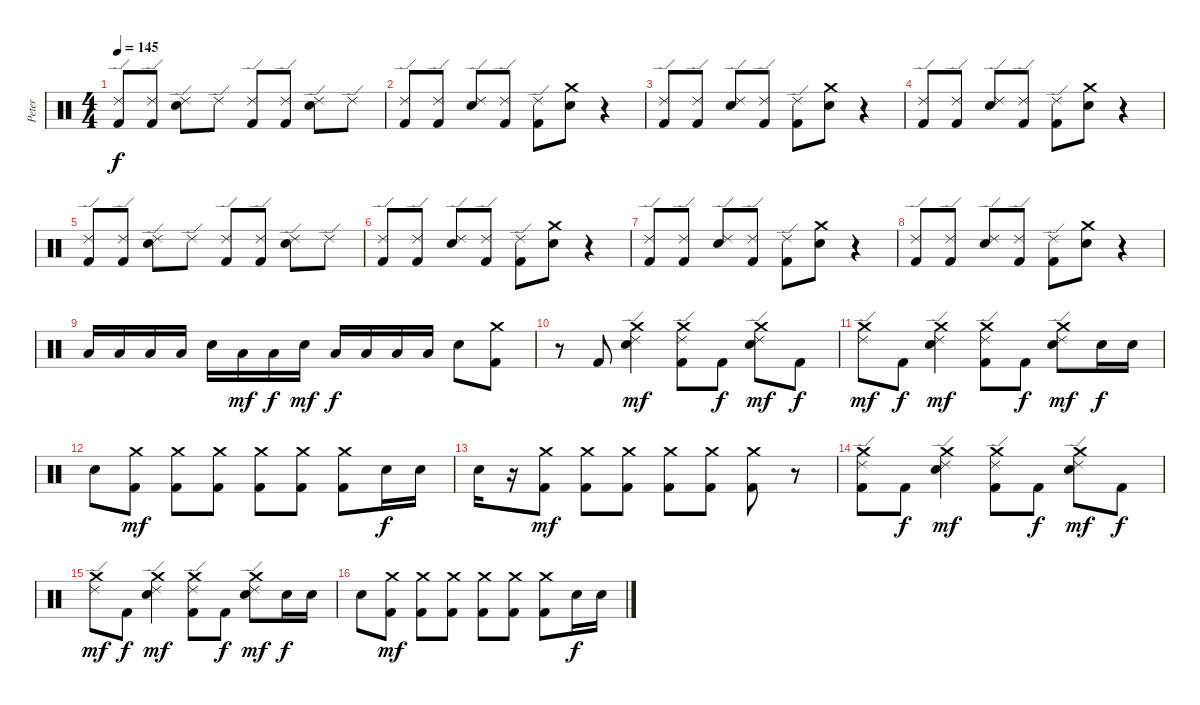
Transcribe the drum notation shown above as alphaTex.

\track ("Peter" "Peter") {instrument percussion}
\staff {score}
\articulation defaults
\ts (4 4)
\tempo 145
\clef neutral
\ks c
("Ride (edge) 2" "Kick (hit) 2").8{dy f} ("Ride (edge) 2" "Kick (hit) 2").8 ("Ride (edge) 2" "Electric Snare (hit)").8 "Ride (edge) 2".8 ("Ride (edge) 2" "Kick (hit) 2").8 ("Ride (edge) 2" "Kick (hit) 2").8 ("Ride (edge) 2" "Electric Snare (hit)").8 "Ride (edge) 2".8 |
("Ride (edge) 2" "Kick (hit) 2").8 ("Ride (edge) 2" "Kick (hit) 2").8 ("Ride (edge) 2" "Electric Snare (hit)").8 ("Ride (edge) 2" "Kick (hit) 2").8 ("Ride (edge) 2" "Kick (hit) 2").8 ("Crash medium (hit)" "Electric Snare (hit)").8 r.4 |
("Ride (edge) 2" "Kick (hit) 2").8 ("Ride (edge) 2" "Kick (hit) 2").8 ("Ride (edge) 2" "Electric Snare (hit)").8 ("Ride (edge) 2" "Kick (hit) 2").8 ("Ride (edge) 2" "Kick (hit) 2").8 ("Crash medium (hit)" "Electric Snare (hit)").8 r.4 |
("Ride (edge) 2" "Kick (hit) 2").8 ("Ride (edge) 2" "Kick (hit) 2").8 ("Ride (edge) 2" "Electric Snare (hit)").8 ("Ride (edge) 2" "Kick (hit) 2").8 ("Ride (edge) 2" "Kick (hit) 2").8 ("Crash medium (hit)" "Electric Snare (hit)").8 r.4 |
("Ride (edge) 2" "Kick (hit) 2").8 ("Ride (edge) 2" "Kick (hit) 2").8 ("Ride (edge) 2" "Electric Snare (hit)").8 "Ride (edge) 2".8 ("Ride (edge) 2" "Kick (hit) 2").8 ("Ride (edge) 2" "Kick (hit) 2").8 ("Ride (edge) 2" "Electric Snare (hit)").8 "Ride (edge) 2".8 |
("Ride (edge) 2" "Kick (hit) 2").8 ("Ride (edge) 2" "Kick (hit) 2").8 ("Ride (edge) 2" "Electric Snare (hit)").8 ("Ride (edge) 2" "Kick (hit) 2").8 ("Ride (edge) 2" "Kick (hit) 2").8 ("Crash medium (hit)" "Electric Snare (hit)").8 r.4 |
("Ride (edge) 2" "Kick (hit) 2").8 ("Ride (edge) 2" "Kick (hit) 2").8 ("Ride (edge) 2" "Electric Snare (hit)").8 ("Ride (edge) 2" "Kick (hit) 2").8 ("Ride (edge) 2" "Kick (hit) 2").8 ("Crash medium (hit)" "Electric Snare (hit)").8 r.4 |
("Ride (edge) 2" "Kick (hit) 2").8 ("Ride (edge) 2" "Kick (hit) 2").8 ("Ride (edge) 2" "Electric Snare (hit)").8 ("Ride (edge) 2" "Kick (hit) 2").8 ("Ride (edge) 2" "Kick (hit) 2").8 ("Crash medium (hit)" "Electric Snare (hit)").8 r.4 |
"Low Tom (hit)".16 "Low Tom (hit)".16 "Low Tom (hit)".16 "Low Tom (hit)".16 "Electric Snare (hit)".16 "Low Tom (hit)".16{dy mf} "Low Tom (hit)".16{dy f} "Electric Snare (hit)".16{dy mf} "Low Tom (hit)".16{dy f} "Low Tom (hit)".16 "Low Tom (hit)".16 "Low Tom (hit)".16 "Electric Snare (hit)".8 ("Crash medium (hit)" "Kick (hit) 2").8 |
r.8 "Kick (hit) 2".8 ("Ride (edge) 2" "Crash medium (hit)" "Electric Snare (hit)").4{dy mf} ("Ride (edge) 2" "Crash medium (hit)" "Kick (hit) 2").8 "Kick (hit) 2".8{dy f} ("Ride (edge) 2" "Crash medium (hit)" "Electric Snare (hit)").8{dy mf} "Kick (hit) 2".8{dy f} |
("Ride (edge) 2" "Crash medium (hit)").8{dy mf} "Kick (hit) 2".8{dy f} ("Ride (edge) 2" "Crash medium (hit)" "Electric Snare (hit)").4{dy mf} ("Ride (edge) 2" "Crash medium (hit)" "Kick (hit) 2").8 "Kick (hit) 2".8{dy f} ("Ride (edge) 2" "Crash medium (hit)" "Electric Snare (hit)").8{dy mf} "Electric Snare (hit)".16{dy f} "Electric Snare (hit)".16 |
"Electric Snare (hit)".8 ("Crash medium (hit)" "Kick (hit) 2").8{dy mf} ("Crash medium (hit)" "Kick (hit) 2").8 ("Crash medium (hit)" "Kick (hit) 2").8 ("Crash medium (hit)" "Kick (hit) 2").8 ("Crash medium (hit)" "Kick (hit) 2").8 ("Crash medium (hit)" "Kick (hit) 2").8 "Electric Snare (hit)".16{dy f} "Electric Snare (hit)".16 |
"Electric Snare (hit)".16 r.16 ("Crash medium (hit)" "Kick (hit) 2").8{dy mf} ("Crash medium (hit)" "Kick (hit) 2").8 ("Crash medium (hit)" "Kick (hit) 2").8 ("Crash medium (hit)" "Kick (hit) 2").8 ("Crash medium (hit)" "Kick (hit) 2").8 ("Crash medium (hit)" "Kick (hit) 2").8 r.8 |
("Crash medium (hit)" "Ride (edge) 2" "Kick (hit) 2").8 "Kick (hit) 2".8{dy f} ("Crash medium (hit)" "Ride (edge) 2" "Electric Snare (hit)").4{dy mf} ("Ride (edge) 2" "Crash medium (hit)" "Kick (hit) 2").8 "Kick (hit) 2".8{dy f} ("Ride (edge) 2" "Crash medium (hit)" "Electric Snare (hit)").8{dy mf} "Kick (hit) 2".8{dy f} |
("Crash medium (hit)" "Ride (edge) 2").8{dy mf} "Kick (hit) 2".8{dy f} ("Ride (edge) 2" "Crash medium (hit)" "Electric Snare (hit)").4{dy mf} ("Crash medium (hit)" "Ride (edge) 2" "Kick (hit) 2").8 "Kick (hit) 2".8{dy f} ("Crash medium (hit)" "Ride (edge) 2" "Electric Snare (hit)").8{dy mf} "Electric Snare (hit)".16{dy f} "Electric Snare (hit)".16 |
"Electric Snare (hit)".8 ("Crash medium (hit)" "Kick (hit) 2").8{dy mf} ("Crash medium (hit)" "Kick (hit) 2").8 ("Crash medium (hit)" "Kick (hit) 2").8 ("Crash medium (hit)" "Kick (hit) 2").8 ("Crash medium (hit)" "Kick (hit) 2").8 ("Crash medium (hit)" "Kick (hit) 2").8 "Electric Snare (hit)".16{dy f} "Electric Snare (hit)".16
